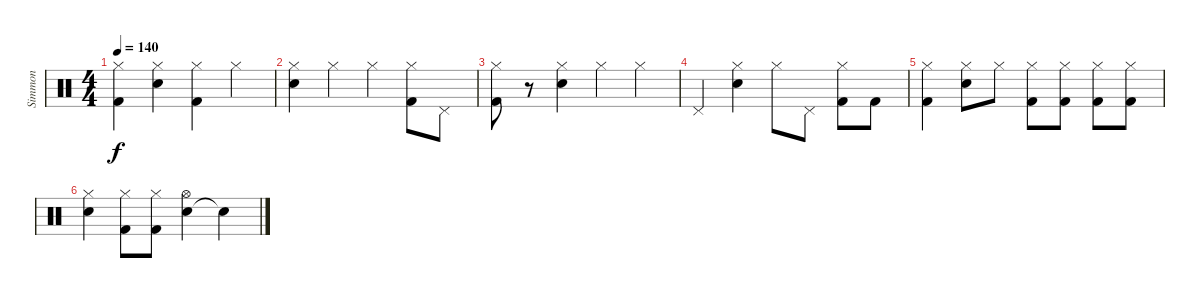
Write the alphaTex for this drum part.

\track ("Simmon" "Simmon") {instrument percussion}
\staff {score}
\articulation defaults
\ts (4 4)
\tempo 140
\clef neutral
\ks c
("Kick (hit) 2" "Hi-Hat (closed)").4{dy f} ("Electric Snare (hit)" "Hi-Hat (closed)").4 ("Kick (hit) 2" "Hi-Hat (closed)").4 "Hi-Hat (closed)".4 |
("Electric Snare (hit)" "Hi-Hat (closed)").4 "Hi-Hat (closed)".4 "Hi-Hat (closed)".4 ("Kick (hit) 2" "Hi-Hat (closed)").8 "Pedal Hi-Hat (hit)".8 |
("Kick (hit) 2" "Hi-Hat (closed)").8 r.8 ("Electric Snare (hit)" "Hi-Hat (closed)").4 "Hi-Hat (closed)".4 "Hi-Hat (closed)".4 |
"Pedal Hi-Hat (hit)".4 ("Electric Snare (hit)" "Hi-Hat (closed)").4 "Hi-Hat (closed)".8 "Pedal Hi-Hat (hit)".8 ("Kick (hit) 2" "Hi-Hat (closed)").8 "Kick (hit) 2".8 |
("Kick (hit) 2" "Hi-Hat (closed)").4 ("Electric Snare (hit)" "Hi-Hat (closed)").8 "Hi-Hat (closed)".8 ("Kick (hit) 2" "Hi-Hat (closed)").8 ("Kick (hit) 2" "Hi-Hat (closed)").8 ("Kick (hit) 2" "Hi-Hat (closed)").8 ("Kick (hit) 2" "Hi-Hat (closed)").8 |
("Electric Snare (hit)" "Hi-Hat (closed)").4 ("Kick (hit) 2" "Hi-Hat (closed)").8 ("Kick (hit) 2" "Hi-Hat (closed)").8 ("Electric Snare (hit)" "Hi-Hat (open)").4 "Snare (hit)"{t}.4
